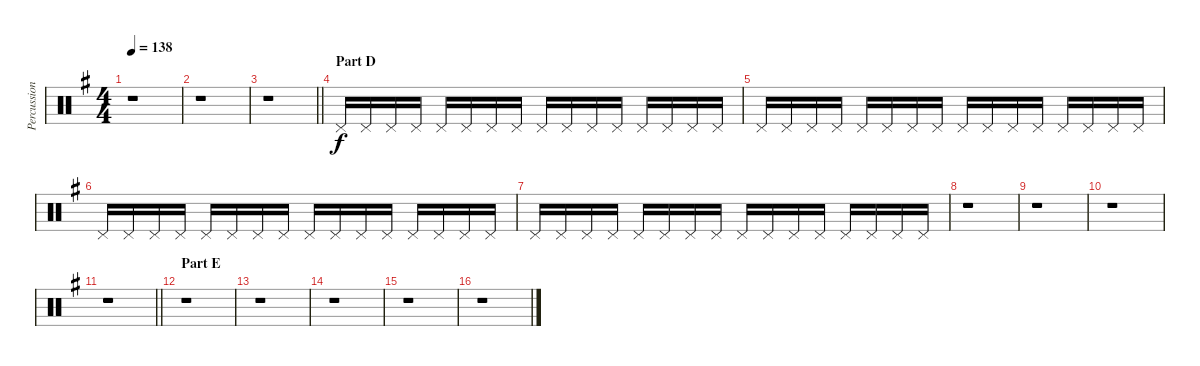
\track ("Percussion" "Percussion") {instrument percussion}
\staff {score}
\articulation defaults
\ts (4 4)
\tempo 138
\clef neutral
\ks g
r.1{dy f} |
r.1 |
\barLineRight lightlight
r.1 |
\section ("" "Part D")
"Pedal Hi-Hat (hit)".16 "Pedal Hi-Hat (hit)".16 "Pedal Hi-Hat (hit)".16 "Pedal Hi-Hat (hit)".16 "Pedal Hi-Hat (hit)".16 "Pedal Hi-Hat (hit)".16 "Pedal Hi-Hat (hit)".16 "Pedal Hi-Hat (hit)".16 "Pedal Hi-Hat (hit)".16 "Pedal Hi-Hat (hit)".16 "Pedal Hi-Hat (hit)".16 "Pedal Hi-Hat (hit)".16 "Pedal Hi-Hat (hit)".16 "Pedal Hi-Hat (hit)".16 "Pedal Hi-Hat (hit)".16 "Pedal Hi-Hat (hit)".16 |
"Pedal Hi-Hat (hit)".16 "Pedal Hi-Hat (hit)".16 "Pedal Hi-Hat (hit)".16 "Pedal Hi-Hat (hit)".16 "Pedal Hi-Hat (hit)".16 "Pedal Hi-Hat (hit)".16 "Pedal Hi-Hat (hit)".16 "Pedal Hi-Hat (hit)".16 "Pedal Hi-Hat (hit)".16 "Pedal Hi-Hat (hit)".16 "Pedal Hi-Hat (hit)".16 "Pedal Hi-Hat (hit)".16 "Pedal Hi-Hat (hit)".16 "Pedal Hi-Hat (hit)".16 "Pedal Hi-Hat (hit)".16 "Pedal Hi-Hat (hit)".16 |
"Pedal Hi-Hat (hit)".16 "Pedal Hi-Hat (hit)".16 "Pedal Hi-Hat (hit)".16 "Pedal Hi-Hat (hit)".16 "Pedal Hi-Hat (hit)".16 "Pedal Hi-Hat (hit)".16 "Pedal Hi-Hat (hit)".16 "Pedal Hi-Hat (hit)".16 "Pedal Hi-Hat (hit)".16 "Pedal Hi-Hat (hit)".16 "Pedal Hi-Hat (hit)".16 "Pedal Hi-Hat (hit)".16 "Pedal Hi-Hat (hit)".16 "Pedal Hi-Hat (hit)".16 "Pedal Hi-Hat (hit)".16 "Pedal Hi-Hat (hit)".16 |
"Pedal Hi-Hat (hit)".16 "Pedal Hi-Hat (hit)".16 "Pedal Hi-Hat (hit)".16 "Pedal Hi-Hat (hit)".16 "Pedal Hi-Hat (hit)".16 "Pedal Hi-Hat (hit)".16 "Pedal Hi-Hat (hit)".16 "Pedal Hi-Hat (hit)".16 "Pedal Hi-Hat (hit)".16 "Pedal Hi-Hat (hit)".16 "Pedal Hi-Hat (hit)".16 "Pedal Hi-Hat (hit)".16 "Pedal Hi-Hat (hit)".16 "Pedal Hi-Hat (hit)".16 "Pedal Hi-Hat (hit)".16 "Pedal Hi-Hat (hit)".16 |
r.1 |
r.1 |
r.1 |
\barLineRight lightlight
r.1 |
\section ("" "Part E")
r.1 |
r.1 |
r.1 |
r.1 |
r.1
